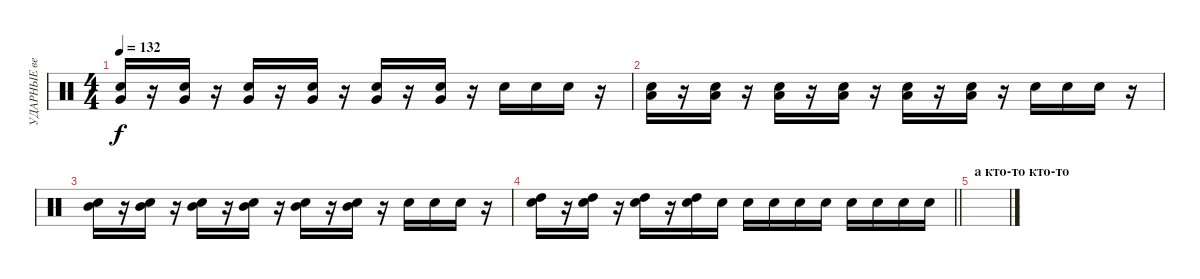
\track ("УДАРНЫЕ ведущий" "УДАРНЫЕ ве") {instrument percussion}
\staff {score}
\articulation defaults
\ts (4 4)
\tempo 132
\clef neutral
\ks c
("Very Low Tom (hit)" "Snare (hit) 2").16{dy f} r.16 ("Very Low Tom (hit)" "Snare (hit) 2").16 r.16 ("Very Low Tom (hit)" "Snare (hit) 2").16 r.16 ("Very Low Tom (hit)" "Snare (hit) 2").16 r.16 ("Very Low Tom (hit)" "Snare (hit) 2").16 r.16 ("Very Low Tom (hit)" "Snare (hit) 2").16 r.16 "Snare (hit) 2".16 "Snare (hit) 2".16 "Snare (hit) 2".16 r.16 |
("Low Tom (hit)" "Snare (hit) 2").16 r.16 ("Low Tom (hit)" "Snare (hit) 2").16 r.16 ("Low Tom (hit)" "Snare (hit) 2").16 r.16 ("Low Tom (hit)" "Snare (hit) 2").16 r.16 ("Low Tom (hit)" "Snare (hit) 2").16 r.16 ("Low Tom (hit)" "Snare (hit) 2").16 r.16 "Snare (hit) 2".16 "Snare (hit) 2".16 "Snare (hit) 2".16 r.16 |
("Mid Tom (hit)" "Snare (hit) 2").16 r.16 ("Mid Tom (hit)" "Snare (hit) 2").16 r.16 ("Mid Tom (hit)" "Snare (hit) 2").16 r.16 ("Mid Tom (hit)" "Snare (hit) 2").16 r.16 ("Mid Tom (hit)" "Snare (hit) 2").16 r.16 ("Mid Tom (hit)" "Snare (hit) 2").16 r.16 "Snare (hit) 2".16 "Snare (hit) 2".16 "Snare (hit) 2".16 r.16 |
\barLineRight lightlight
("High Tom (hit)" "Snare (hit) 2").16 r.16 ("High Tom (hit)" "Snare (hit) 2").16 r.16 ("High Tom (hit)" "Snare (hit) 2").16 r.16 ("High Tom (hit)" "Snare (hit) 2").16 "Snare (hit) 2".16 "Snare (hit) 2".16 "Snare (hit) 2".16 "Snare (hit) 2".16 "Snare (hit) 2".16 "Snare (hit) 2".16 "Snare (hit) 2".16 "Snare (hit) 2".16 "Snare (hit) 2".16 |
\section ("" "а кто-то кто-то")
